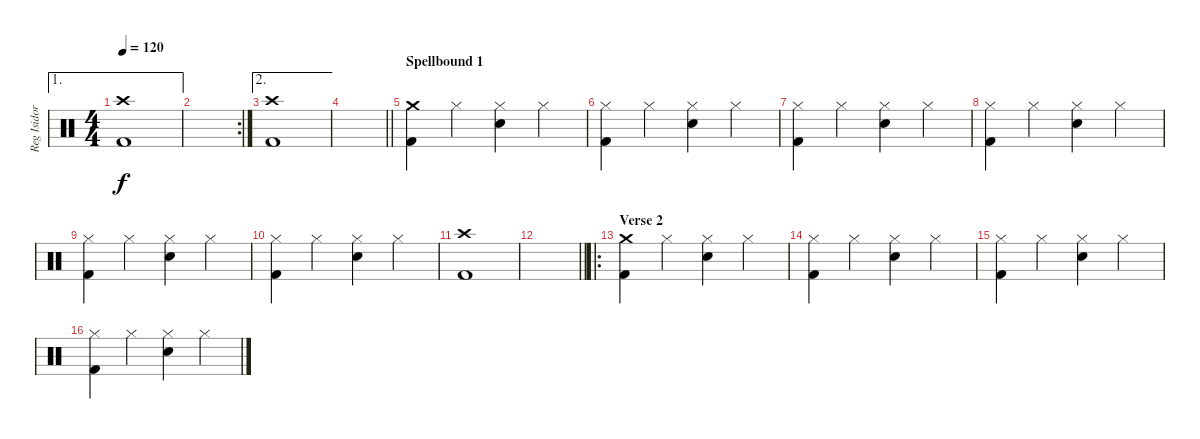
\track ("Reg Isidor" "Reg Isidor") {instrument percussion}
\staff {score}
\articulation defaults
\ae 1
\ts (4 4)
\tempo 120
\clef neutral
\ks c
("Crash high (hit)" "Kick (hit) 2").1{dy f} |
\rc 2
|
\ae 2
("Crash high (hit)" "Kick (hit) 2").1 |
\barLineRight lightlight
|
\section ("" "Spellbound 1")
("Crash medium (hit)" "Kick (hit) 2").4 "Hi-Hat (closed)".4 ("Hi-Hat (closed)" "Snare (hit) 2").4 "Hi-Hat (closed)".4 |
("Hi-Hat (closed)" "Kick (hit) 2").4 "Hi-Hat (closed)".4 ("Hi-Hat (closed)" "Snare (hit) 2").4 "Hi-Hat (closed)".4 |
("Hi-Hat (closed)" "Kick (hit) 2").4 "Hi-Hat (closed)".4 ("Hi-Hat (closed)" "Snare (hit) 2").4 "Hi-Hat (closed)".4 |
("Hi-Hat (closed)" "Kick (hit) 2").4 "Hi-Hat (closed)".4 ("Hi-Hat (closed)" "Snare (hit) 2").4 "Hi-Hat (closed)".4 |
("Hi-Hat (closed)" "Kick (hit) 2").4 "Hi-Hat (closed)".4 ("Hi-Hat (closed)" "Snare (hit) 2").4 "Hi-Hat (closed)".4 |
("Hi-Hat (closed)" "Kick (hit) 2").4 "Hi-Hat (closed)".4 ("Hi-Hat (closed)" "Snare (hit) 2").4 "Hi-Hat (closed)".4 |
("Crash high (hit)" "Kick (hit) 2").1 |
\barLineRight lightlight
|
\ro
\section ("" "Verse 2")
("Crash medium (hit)" "Kick (hit) 2").4 "Hi-Hat (closed)".4 ("Hi-Hat (closed)" "Snare (hit) 2").4 "Hi-Hat (closed)".4 |
("Hi-Hat (closed)" "Kick (hit) 2").4 "Hi-Hat (closed)".4 ("Hi-Hat (closed)" "Snare (hit) 2").4 "Hi-Hat (closed)".4 |
("Hi-Hat (closed)" "Kick (hit) 2").4 "Hi-Hat (closed)".4 ("Hi-Hat (closed)" "Snare (hit) 2").4 "Hi-Hat (closed)".4 |
("Hi-Hat (closed)" "Kick (hit) 2").4 "Hi-Hat (closed)".4 ("Hi-Hat (closed)" "Snare (hit) 2").4 "Hi-Hat (closed)".4
